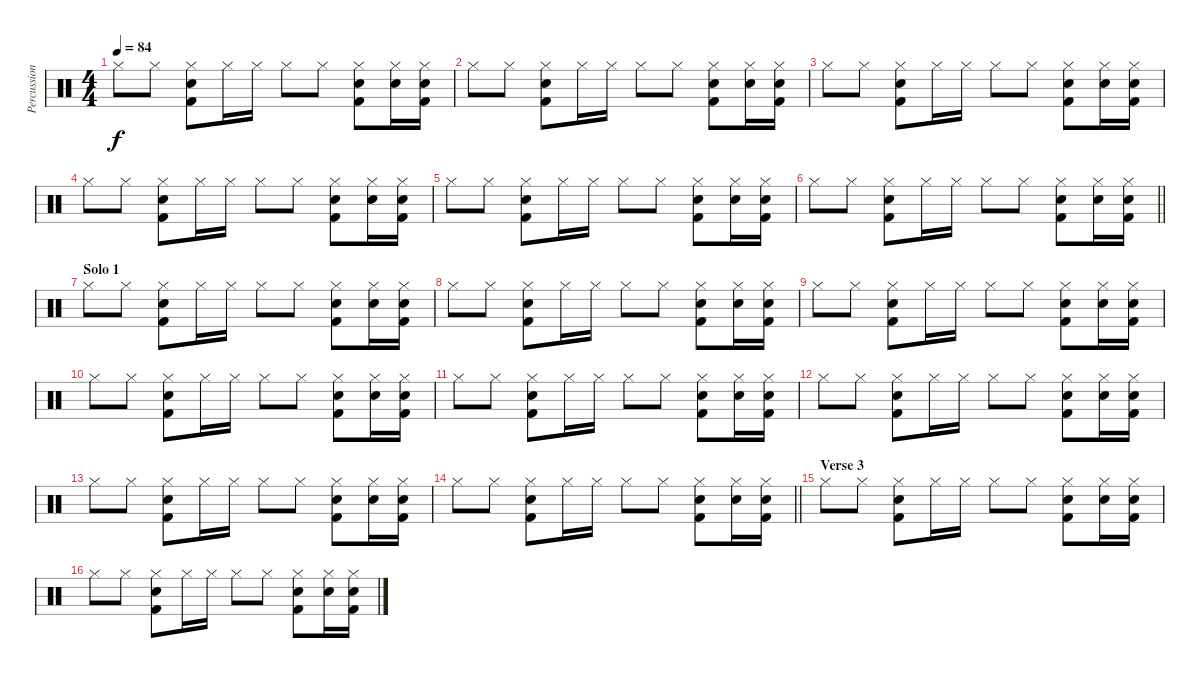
\track ("Percussion" "Percussion") {instrument percussion}
\staff {score}
\articulation defaults
\ts (4 4)
\tempo 84
\clef neutral
\ks c "Hi-Hat (closed)".8{dy f} "Hi-Hat (closed)".8
("Hi-Hat (closed)" "Snare (hit) 2" "Kick (hit) 2").8 "Hi-Hat (closed)".16 "Hi-Hat (closed)".16 "Hi-Hat (closed)".8 "Hi-Hat (closed)".8 ("Hi-Hat (closed)" "Snare (hit) 2" "Kick (hit) 2").8 ("Hi-Hat (closed)" "Snare (hit) 2").16 ("Hi-Hat (closed)" "Snare (hit) 2" "Kick (hit) 2").16 |
"Hi-Hat (closed)".8 "Hi-Hat (closed)".8 ("Hi-Hat (closed)" "Snare (hit) 2" "Kick (hit) 2").8 "Hi-Hat (closed)".16 "Hi-Hat (closed)".16 "Hi-Hat (closed)".8 "Hi-Hat (closed)".8 ("Hi-Hat (closed)" "Snare (hit) 2" "Kick (hit) 2").8 ("Hi-Hat (closed)" "Snare (hit) 2").16 ("Hi-Hat (closed)" "Snare (hit) 2" "Kick (hit) 2").16 |
"Hi-Hat (closed)".8 "Hi-Hat (closed)".8 ("Hi-Hat (closed)" "Snare (hit) 2" "Kick (hit) 2").8 "Hi-Hat (closed)".16 "Hi-Hat (closed)".16 "Hi-Hat (closed)".8 "Hi-Hat (closed)".8 ("Hi-Hat (closed)" "Snare (hit) 2" "Kick (hit) 2").8 ("Hi-Hat (closed)" "Snare (hit) 2").16 ("Hi-Hat (closed)" "Snare (hit) 2" "Kick (hit) 2").16 |
"Hi-Hat (closed)".8 "Hi-Hat (closed)".8 ("Hi-Hat (closed)" "Snare (hit) 2" "Kick (hit) 2").8 "Hi-Hat (closed)".16 "Hi-Hat (closed)".16 "Hi-Hat (closed)".8 "Hi-Hat (closed)".8 ("Hi-Hat (closed)" "Snare (hit) 2" "Kick (hit) 2").8 ("Hi-Hat (closed)" "Snare (hit) 2").16 ("Hi-Hat (closed)" "Snare (hit) 2" "Kick (hit) 2").16 |
"Hi-Hat (closed)".8 "Hi-Hat (closed)".8 ("Hi-Hat (closed)" "Snare (hit) 2" "Kick (hit) 2").8 "Hi-Hat (closed)".16 "Hi-Hat (closed)".16 "Hi-Hat (closed)".8 "Hi-Hat (closed)".8 ("Hi-Hat (closed)" "Snare (hit) 2" "Kick (hit) 2").8 ("Hi-Hat (closed)" "Snare (hit) 2").16 ("Hi-Hat (closed)" "Snare (hit) 2" "Kick (hit) 2").16 |
\barLineRight lightlight "Hi-Hat (closed)".8 "Hi-Hat (closed)".8
("Hi-Hat (closed)" "Snare (hit) 2" "Kick (hit) 2").8 "Hi-Hat (closed)".16 "Hi-Hat (closed)".16 "Hi-Hat (closed)".8 "Hi-Hat (closed)".8 ("Hi-Hat (closed)" "Snare (hit) 2" "Kick (hit) 2").8 ("Hi-Hat (closed)" "Snare (hit) 2").16 ("Hi-Hat (closed)" "Snare (hit) 2" "Kick (hit) 2").16 |
\section ("" "Solo 1")
"Hi-Hat (closed)".8 "Hi-Hat (closed)".8 ("Hi-Hat (closed)" "Snare (hit) 2" "Kick (hit) 2").8 "Hi-Hat (closed)".16 "Hi-Hat (closed)".16 "Hi-Hat (closed)".8 "Hi-Hat (closed)".8 ("Hi-Hat (closed)" "Snare (hit) 2" "Kick (hit) 2").8 ("Hi-Hat (closed)" "Snare (hit) 2").16 ("Hi-Hat (closed)" "Snare (hit) 2" "Kick (hit) 2").16 |
"Hi-Hat (closed)".8 "Hi-Hat (closed)".8 ("Hi-Hat (closed)" "Snare (hit) 2" "Kick (hit) 2").8 "Hi-Hat (closed)".16 "Hi-Hat (closed)".16 "Hi-Hat (closed)".8 "Hi-Hat (closed)".8 ("Hi-Hat (closed)" "Snare (hit) 2" "Kick (hit) 2").8 ("Hi-Hat (closed)" "Snare (hit) 2").16 ("Hi-Hat (closed)" "Snare (hit) 2" "Kick (hit) 2").16 |
"Hi-Hat (closed)".8 "Hi-Hat (closed)".8 ("Hi-Hat (closed)" "Snare (hit) 2" "Kick (hit) 2").8 "Hi-Hat (closed)".16 "Hi-Hat (closed)".16 "Hi-Hat (closed)".8 "Hi-Hat (closed)".8 ("Hi-Hat (closed)" "Snare (hit) 2" "Kick (hit) 2").8 ("Hi-Hat (closed)" "Snare (hit) 2").16 ("Hi-Hat (closed)" "Snare (hit) 2" "Kick (hit) 2").16 |
"Hi-Hat (closed)".8 "Hi-Hat (closed)".8 ("Hi-Hat (closed)" "Snare (hit) 2" "Kick (hit) 2").8 "Hi-Hat (closed)".16 "Hi-Hat (closed)".16 "Hi-Hat (closed)".8 "Hi-Hat (closed)".8 ("Hi-Hat (closed)" "Snare (hit) 2" "Kick (hit) 2").8 ("Hi-Hat (closed)" "Snare (hit) 2").16 ("Hi-Hat (closed)" "Snare (hit) 2" "Kick (hit) 2").16 |
"Hi-Hat (closed)".8 "Hi-Hat (closed)".8 ("Hi-Hat (closed)" "Snare (hit) 2" "Kick (hit) 2").8 "Hi-Hat (closed)".16 "Hi-Hat (closed)".16 "Hi-Hat (closed)".8 "Hi-Hat (closed)".8 ("Hi-Hat (closed)" "Snare (hit) 2" "Kick (hit) 2").8 ("Hi-Hat (closed)" "Snare (hit) 2").16 ("Hi-Hat (closed)" "Snare (hit) 2" "Kick (hit) 2").16 |
"Hi-Hat (closed)".8 "Hi-Hat (closed)".8 ("Hi-Hat (closed)" "Snare (hit) 2" "Kick (hit) 2").8 "Hi-Hat (closed)".16 "Hi-Hat (closed)".16 "Hi-Hat (closed)".8 "Hi-Hat (closed)".8 ("Hi-Hat (closed)" "Snare (hit) 2" "Kick (hit) 2").8 ("Hi-Hat (closed)" "Snare (hit) 2").16 ("Hi-Hat (closed)" "Snare (hit) 2" "Kick (hit) 2").16 |
"Hi-Hat (closed)".8 "Hi-Hat (closed)".8 ("Hi-Hat (closed)" "Snare (hit) 2" "Kick (hit) 2").8 "Hi-Hat (closed)".16 "Hi-Hat (closed)".16 "Hi-Hat (closed)".8 "Hi-Hat (closed)".8 ("Hi-Hat (closed)" "Snare (hit) 2" "Kick (hit) 2").8 ("Hi-Hat (closed)" "Snare (hit) 2").16 ("Hi-Hat (closed)" "Snare (hit) 2" "Kick (hit) 2").16 |
\barLineRight lightlight "Hi-Hat (closed)".8 "Hi-Hat (closed)".8
("Hi-Hat (closed)" "Snare (hit) 2" "Kick (hit) 2").8 "Hi-Hat (closed)".16 "Hi-Hat (closed)".16 "Hi-Hat (closed)".8 "Hi-Hat (closed)".8 ("Hi-Hat (closed)" "Snare (hit) 2" "Kick (hit) 2").8 ("Hi-Hat (closed)" "Snare (hit) 2").16 ("Hi-Hat (closed)" "Snare (hit) 2" "Kick (hit) 2").16 |
\section ("" "Verse 3")
"Hi-Hat (closed)".8 "Hi-Hat (closed)".8 ("Hi-Hat (closed)" "Snare (hit) 2" "Kick (hit) 2").8 "Hi-Hat (closed)".16 "Hi-Hat (closed)".16 "Hi-Hat (closed)".8 "Hi-Hat (closed)".8 ("Hi-Hat (closed)" "Snare (hit) 2" "Kick (hit) 2").8 ("Hi-Hat (closed)" "Snare (hit) 2").16 ("Hi-Hat (closed)" "Snare (hit) 2" "Kick (hit) 2").16 |
"Hi-Hat (closed)".8 "Hi-Hat (closed)".8 ("Hi-Hat (closed)" "Snare (hit) 2" "Kick (hit) 2").8 "Hi-Hat (closed)".16 "Hi-Hat (closed)".16 "Hi-Hat (closed)".8 "Hi-Hat (closed)".8 ("Hi-Hat (closed)" "Snare (hit) 2" "Kick (hit) 2").8 ("Hi-Hat (closed)" "Snare (hit) 2").16 ("Hi-Hat (closed)" "Snare (hit) 2" "Kick (hit) 2").16
